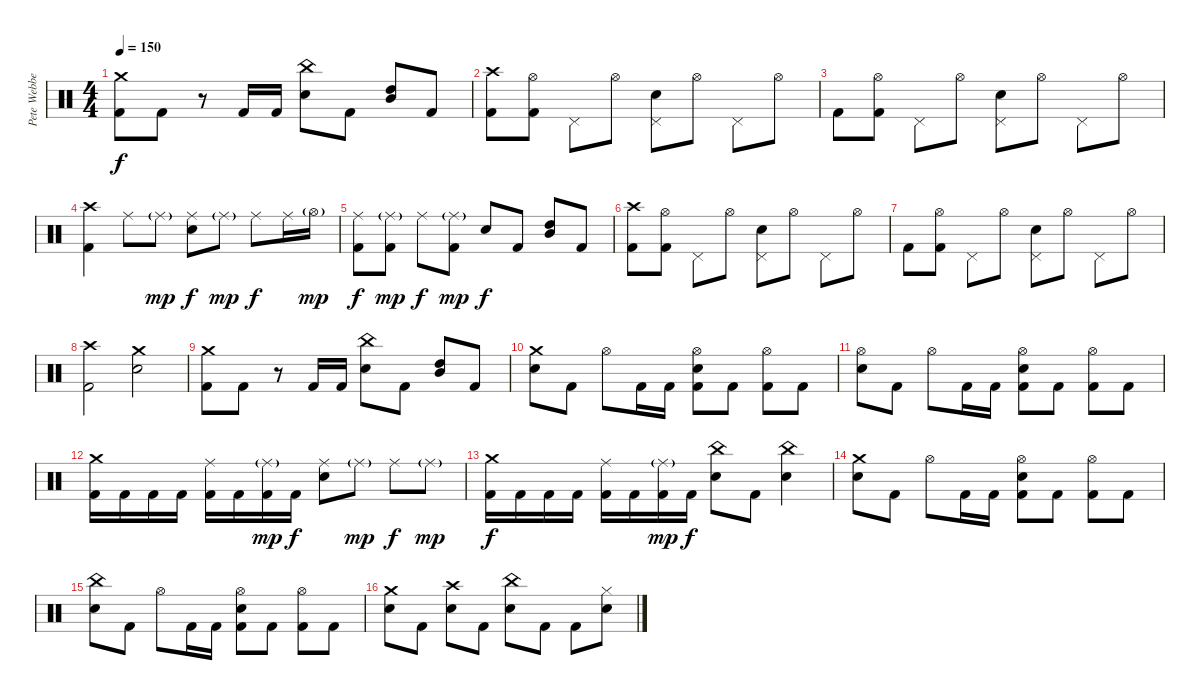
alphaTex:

\track ("Pete Webber" "Pete Webbe") {instrument percussion}
\staff {score}
\articulation defaults
\ts (4 4)
\tempo 150
\clef neutral
\ks c
("Kick (hit) 2" "Crash medium (hit)").8{dy f} "Kick (hit) 2".8 r.8 "Kick (hit) 2".16 "Kick (hit) 2".16 ("Electric Snare (hit)" "China (hit)").8 "Kick (hit) 2".8 ("High Tom (hit)" "Mid Tom (hit)").8 "Kick (hit) 2".8 |
("Kick (hit) 2" "Crash high (hit)").8 ("Hi-Hat (open)" "Kick (hit) 2").8 "Pedal Hi-Hat (hit)".8 "Hi-Hat (open)".8 ("Pedal Hi-Hat (hit)" "Electric Snare (hit)").8 "Hi-Hat (open)".8 "Pedal Hi-Hat (hit)".8 "Hi-Hat (open)".8 |
"Kick (hit) 2".8 ("Hi-Hat (open)" "Kick (hit) 2").8 "Pedal Hi-Hat (hit)".8 "Hi-Hat (open)".8 ("Pedal Hi-Hat (hit)" "Electric Snare (hit)").8 "Hi-Hat (open)".8 "Pedal Hi-Hat (hit)".8 "Hi-Hat (open)".8 |
("Kick (hit) 2" "Crash high (hit)").4 "Ride (middle)".8 "Ride (middle)"{g}.8{dy mp} ("Ride (middle)" "Electric Snare (hit)").8{dy f} "Ride (middle)"{g}.8{dy mp} "Ride (middle)".8{dy f} "Ride (middle)".16 "Hi-Hat (open)"{g}.16{dy mp} |
("Ride (middle)" "Kick (hit) 2").8{dy f} ("Ride (middle)"{g} "Kick (hit) 2").8{dy mp} "Ride (middle)".8{dy f} ("Ride (middle)"{g} "Kick (hit) 2").8{dy mp} "Electric Snare (hit)".8{dy f} "Kick (hit) 2".8 ("High Tom (hit)" "Mid Tom (hit)").8 "Kick (hit) 2".8 |
("Kick (hit) 2" "Crash high (hit)").8 ("Hi-Hat (open)" "Kick (hit) 2").8 "Pedal Hi-Hat (hit)".8 "Hi-Hat (open)".8 ("Pedal Hi-Hat (hit)" "Electric Snare (hit)").8 "Hi-Hat (open)".8 "Pedal Hi-Hat (hit)".8 "Hi-Hat (open)".8 |
"Kick (hit) 2".8 ("Hi-Hat (open)" "Kick (hit) 2").8 "Pedal Hi-Hat (hit)".8 "Hi-Hat (open)".8 ("Pedal Hi-Hat (hit)" "Electric Snare (hit)").8 "Hi-Hat (open)".8 "Pedal Hi-Hat (hit)".8 "Hi-Hat (open)".8 |
("Kick (hit) 2" "Crash high (hit)").2 ("Electric Snare (hit)" "Crash medium (hit)").2 |
("Kick (hit) 2" "Crash medium (hit)").8 "Kick (hit) 2".8 r.8 "Kick (hit) 2".16 "Kick (hit) 2".16 ("Electric Snare (hit)" "China (hit)").8 "Kick (hit) 2".8 ("High Tom (hit)" "Mid Tom (hit)").8 "Kick (hit) 2".8 |
("Electric Snare (hit)" "Crash medium (hit)").8 "Kick (hit) 2".8 "Hi-Hat (open)".8 "Kick (hit) 2".16 "Kick (hit) 2".16 ("Hi-Hat (open)" "Electric Snare (hit)" "Kick (hit) 2").8 "Kick (hit) 2".8 ("Hi-Hat (open)" "Kick (hit) 2").8 "Kick (hit) 2".8 |
("Hi-Hat (open)" "Electric Snare (hit)").8 "Kick (hit) 2".8 "Hi-Hat (open)".8 "Kick (hit) 2".16 "Kick (hit) 2".16 ("Hi-Hat (open)" "Electric Snare (hit)" "Kick (hit) 2").8 "Kick (hit) 2".8 ("Hi-Hat (open)" "Kick (hit) 2").8 "Kick (hit) 2".8 |
("Kick (hit) 2" "Crash medium (hit)").16 "Kick (hit) 2".16 "Kick (hit) 2".16 "Kick (hit) 2".16 ("Ride (middle)" "Kick (hit) 2").16 "Kick (hit) 2".16 ("Ride (middle)"{g} "Kick (hit) 2").16{dy mp} "Kick (hit) 2".16{dy f} ("Ride (middle)" "Electric Snare (hit)").8 "Ride (middle)"{g}.8{dy mp} "Ride (middle)".8{dy f} "Ride (middle)"{g}.8{dy mp} |
("Kick (hit) 2" "Crash medium (hit)").16{dy f} "Kick (hit) 2".16 "Kick (hit) 2".16 "Kick (hit) 2".16 ("Ride (middle)" "Kick (hit) 2").16 "Kick (hit) 2".16 ("Ride (middle)"{g} "Kick (hit) 2").16{dy mp} "Kick (hit) 2".16{dy f} ("Electric Snare (hit)" "China (hit)").8 "Kick (hit) 2".8 ("Electric Snare (hit)" "China (hit)").4 |
("Electric Snare (hit)" "Crash medium (hit)").8 "Kick (hit) 2".8 "Hi-Hat (open)".8 "Kick (hit) 2".16 "Kick (hit) 2".16 ("Hi-Hat (open)" "Electric Snare (hit)" "Kick (hit) 2").8 "Kick (hit) 2".8 ("Hi-Hat (open)" "Kick (hit) 2").8 "Kick (hit) 2".8 |
("Electric Snare (hit)" "China (hit)").8 "Kick (hit) 2".8 "Hi-Hat (open)".8 "Kick (hit) 2".16 "Kick (hit) 2".16 ("Hi-Hat (open)" "Electric Snare (hit)" "Kick (hit) 2").8 "Kick (hit) 2".8 ("Hi-Hat (open)" "Kick (hit) 2").8 "Kick (hit) 2".8 |
("Electric Snare (hit)" "Crash medium (hit)").8 "Kick (hit) 2".8 ("Electric Snare (hit)" "Crash high (hit)").8 "Kick (hit) 2".8 ("Electric Snare (hit)" "China (hit)").8 "Kick (hit) 2".8 "Kick (hit) 2".8 ("Hi-Hat (closed)" "Electric Snare (hit)").8
